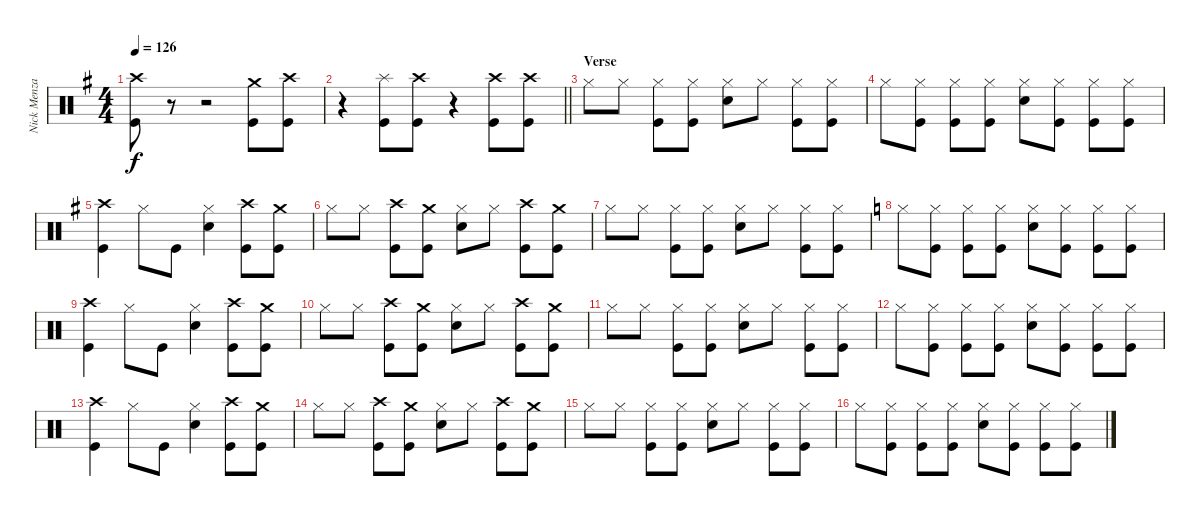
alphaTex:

\track ("Nick Menza" "Nick Menza") {instrument percussion}
\staff {score}
\articulation defaults
\ts (4 4)
\tempo 126
\clef neutral
\ks g
("Kick (hit)" "Crash high (hit)").8{dy f} r.8 r.2 ("Kick (hit)" "Crash medium (hit)").8 ("Kick (hit)" "Crash high (hit)").8 |
\barLineRight lightlight
r.4 ("Kick (hit)" "Splash (hit)").8 ("Kick (hit)" "Crash high (hit)").8 r.4 ("Kick (hit)" "Crash high (hit)").8 ("Kick (hit)" "Crash high (hit)").8 |
\section ("" "Verse")
"Hi-Hat (closed)".8 "Hi-Hat (closed)".8 ("Kick (hit)" "Hi-Hat (closed)").8 ("Kick (hit)" "Hi-Hat (closed)").8 ("Hi-Hat (closed)" "Snare (hit) 2").8 "Hi-Hat (closed)".8 ("Kick (hit)" "Hi-Hat (closed)").8 ("Kick (hit)" "Hi-Hat (closed)").8 |
"Hi-Hat (closed)".8 ("Kick (hit)" "Hi-Hat (closed)").8 ("Kick (hit)" "Hi-Hat (closed)").8 ("Kick (hit)" "Hi-Hat (closed)").8 ("Hi-Hat (closed)" "Snare (hit) 2").8 ("Kick (hit)" "Hi-Hat (closed)").8 ("Kick (hit)" "Hi-Hat (closed)").8 ("Kick (hit)" "Hi-Hat (closed)").8 |
("Kick (hit)" "Crash high (hit)").4 "Hi-Hat (closed)".8 "Kick (hit)".8 ("Hi-Hat (closed)" "Snare (hit) 2").4 ("Kick (hit)" "Crash high (hit)").8 ("Kick (hit)" "Crash medium (hit)").8 |
"Hi-Hat (closed)".8 "Hi-Hat (closed)".8 ("Kick (hit)" "Crash high (hit)").8 ("Kick (hit)" "Crash medium (hit)").8 ("Hi-Hat (closed)" "Snare (hit) 2").8 "Hi-Hat (closed)".8 ("Kick (hit)" "Crash high (hit)").8 ("Kick (hit)" "Crash medium (hit)").8 |
"Hi-Hat (closed)".8 "Hi-Hat (closed)".8 ("Kick (hit)" "Hi-Hat (closed)").8 ("Kick (hit)" "Hi-Hat (closed)").8 ("Hi-Hat (closed)" "Snare (hit) 2").8 "Hi-Hat (closed)".8 ("Kick (hit)" "Hi-Hat (closed)").8 ("Kick (hit)" "Hi-Hat (closed)").8 |
\ks c "Hi-Hat (closed)".8
("Kick (hit)" "Hi-Hat (closed)").8 ("Kick (hit)" "Hi-Hat (closed)").8 ("Kick (hit)" "Hi-Hat (closed)").8 ("Hi-Hat (closed)" "Snare (hit) 2").8 ("Kick (hit)" "Hi-Hat (closed)").8 ("Kick (hit)" "Hi-Hat (closed)").8 ("Kick (hit)" "Hi-Hat (closed)").8 |
("Kick (hit)" "Crash high (hit)").4 "Hi-Hat (closed)".8 "Kick (hit)".8 ("Hi-Hat (closed)" "Snare (hit) 2").4 ("Kick (hit)" "Crash high (hit)").8 ("Kick (hit)" "Crash medium (hit)").8 |
"Hi-Hat (closed)".8 "Hi-Hat (closed)".8 ("Kick (hit)" "Crash high (hit)").8 ("Kick (hit)" "Crash medium (hit)").8 ("Hi-Hat (closed)" "Snare (hit) 2").8 "Hi-Hat (closed)".8 ("Kick (hit)" "Crash high (hit)").8 ("Kick (hit)" "Crash medium (hit)").8 |
"Hi-Hat (closed)".8 "Hi-Hat (closed)".8 ("Kick (hit)" "Hi-Hat (closed)").8 ("Kick (hit)" "Hi-Hat (closed)").8 ("Hi-Hat (closed)" "Snare (hit) 2").8 "Hi-Hat (closed)".8 ("Kick (hit)" "Hi-Hat (closed)").8 ("Kick (hit)" "Hi-Hat (closed)").8 |
"Hi-Hat (closed)".8 ("Kick (hit)" "Hi-Hat (closed)").8 ("Kick (hit)" "Hi-Hat (closed)").8 ("Kick (hit)" "Hi-Hat (closed)").8 ("Hi-Hat (closed)" "Snare (hit) 2").8 ("Kick (hit)" "Hi-Hat (closed)").8 ("Kick (hit)" "Hi-Hat (closed)").8 ("Kick (hit)" "Hi-Hat (closed)").8 |
("Kick (hit)" "Crash high (hit)").4 "Hi-Hat (closed)".8 "Kick (hit)".8 ("Hi-Hat (closed)" "Snare (hit) 2").4 ("Kick (hit)" "Crash high (hit)").8 ("Kick (hit)" "Crash medium (hit)").8 |
"Hi-Hat (closed)".8 "Hi-Hat (closed)".8 ("Kick (hit)" "Crash high (hit)").8 ("Kick (hit)" "Crash medium (hit)").8 ("Hi-Hat (closed)" "Snare (hit) 2").8 "Hi-Hat (closed)".8 ("Kick (hit)" "Crash high (hit)").8 ("Kick (hit)" "Crash medium (hit)").8 |
"Hi-Hat (closed)".8 "Hi-Hat (closed)".8 ("Kick (hit)" "Hi-Hat (closed)").8 ("Kick (hit)" "Hi-Hat (closed)").8 ("Hi-Hat (closed)" "Snare (hit) 2").8 "Hi-Hat (closed)".8 ("Kick (hit)" "Hi-Hat (closed)").8 ("Kick (hit)" "Hi-Hat (closed)").8 |
"Hi-Hat (closed)".8 ("Kick (hit)" "Hi-Hat (closed)").8 ("Kick (hit)" "Hi-Hat (closed)").8 ("Kick (hit)" "Hi-Hat (closed)").8 ("Hi-Hat (closed)" "Snare (hit) 2").8 ("Kick (hit)" "Hi-Hat (closed)").8 ("Kick (hit)" "Hi-Hat (closed)").8 ("Kick (hit)" "Hi-Hat (closed)").8
